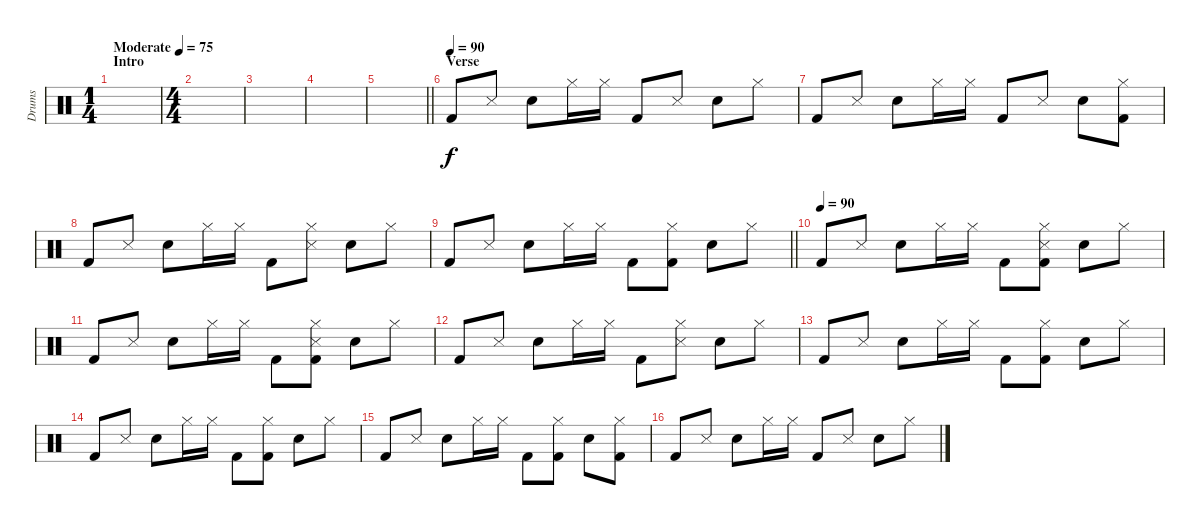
\track ("Drums" "Drums") {instrument percussion}
\staff {score}
\articulation defaults
\ts (1 4)
\section ("" "Intro")
\tempo (75 "Moderate")
\clef neutral
\ks c
|
\ts (4 4)
|
|
|
\barLineRight lightlight
|
\section ("" "Verse")
\tempo (90)
"Kick (hit) 2".8 "Snare (side stick) 3".8 "Snare (hit) 2".8 "Hi-Hat (closed)".16 "Hi-Hat (closed)".16 "Kick (hit) 2".8 "Snare (side stick) 3".8 "Snare (hit) 2".8 "Hi-Hat (closed)".8 |
"Kick (hit) 2".8 "Snare (side stick) 3".8 "Snare (hit) 2".8 "Hi-Hat (closed)".16 "Hi-Hat (closed)".16 "Kick (hit) 2".8 "Snare (side stick) 3".8 "Snare (hit) 2".8 ("Hi-Hat (closed)" "Kick (hit) 2").8 |
"Kick (hit) 2".8 "Snare (side stick) 3".8 "Snare (hit) 2".8 "Hi-Hat (closed)".16 "Hi-Hat (closed)".16 "Kick (hit) 2".8 ("Hi-Hat (closed)" "Snare (side stick) 3").8 "Snare (hit) 2".8 "Hi-Hat (closed)".8 |
\barLineRight lightlight "Kick (hit) 2".8 "Snare (side stick) 3".8 "Snare (hit) 2".8 "Hi-Hat (closed)".16 "Hi-Hat (closed)".16 "Kick (hit) 2".8
("Hi-Hat (closed)" "Kick (hit) 2").8 "Snare (hit) 2".8 "Hi-Hat (closed)".8 |
\tempo (90)
"Kick (hit) 2".8 "Snare (side stick) 3".8 "Snare (hit) 2".8 "Hi-Hat (closed)".16 "Hi-Hat (closed)".16 "Kick (hit) 2".8 ("Hi-Hat (closed)" "Snare (side stick) 3" "Kick (hit) 2").8 "Snare (hit) 2".8 "Hi-Hat (closed)".8 |
"Kick (hit) 2".8 "Snare (side stick) 3".8 "Snare (hit) 2".8 "Hi-Hat (closed)".16 "Hi-Hat (closed)".16 "Kick (hit) 2".8 ("Hi-Hat (closed)" "Snare (side stick) 3" "Kick (hit) 2").8 "Snare (hit) 2".8 "Hi-Hat (closed)".8 |
"Kick (hit) 2".8 "Snare (side stick) 3".8 "Snare (hit) 2".8 "Hi-Hat (closed)".16 "Hi-Hat (closed)".16 "Kick (hit) 2".8 ("Hi-Hat (closed)" "Snare (side stick) 3").8 "Snare (hit) 2".8 "Hi-Hat (closed)".8 |
"Kick (hit) 2".8 "Snare (side stick) 3".8 "Snare (hit) 2".8 "Hi-Hat (closed)".16 "Hi-Hat (closed)".16 "Kick (hit) 2".8 ("Hi-Hat (closed)" "Kick (hit) 2").8 "Snare (hit) 2".8 "Hi-Hat (closed)".8 |
"Kick (hit) 2".8 "Snare (side stick) 3".8 "Snare (hit) 2".8 "Hi-Hat (closed)".16 "Hi-Hat (closed)".16 "Kick (hit) 2".8 ("Hi-Hat (closed)" "Kick (hit) 2").8 "Snare (hit) 2".8 "Hi-Hat (closed)".8 |
"Kick (hit) 2".8 "Snare (side stick) 3".8 "Snare (hit) 2".8 "Hi-Hat (closed)".16 "Hi-Hat (closed)".16 "Kick (hit) 2".8 ("Hi-Hat (closed)" "Kick (hit) 2").8 "Snare (hit) 2".8 ("Hi-Hat (closed)" "Kick (hit) 2").8 |
"Kick (hit) 2".8 "Snare (side stick) 3".8 "Snare (hit) 2".8 "Hi-Hat (closed)".16 "Hi-Hat (closed)".16 "Kick (hit) 2".8 "Snare (side stick) 3".8 "Snare (hit) 2".8 "Hi-Hat (closed)".8
